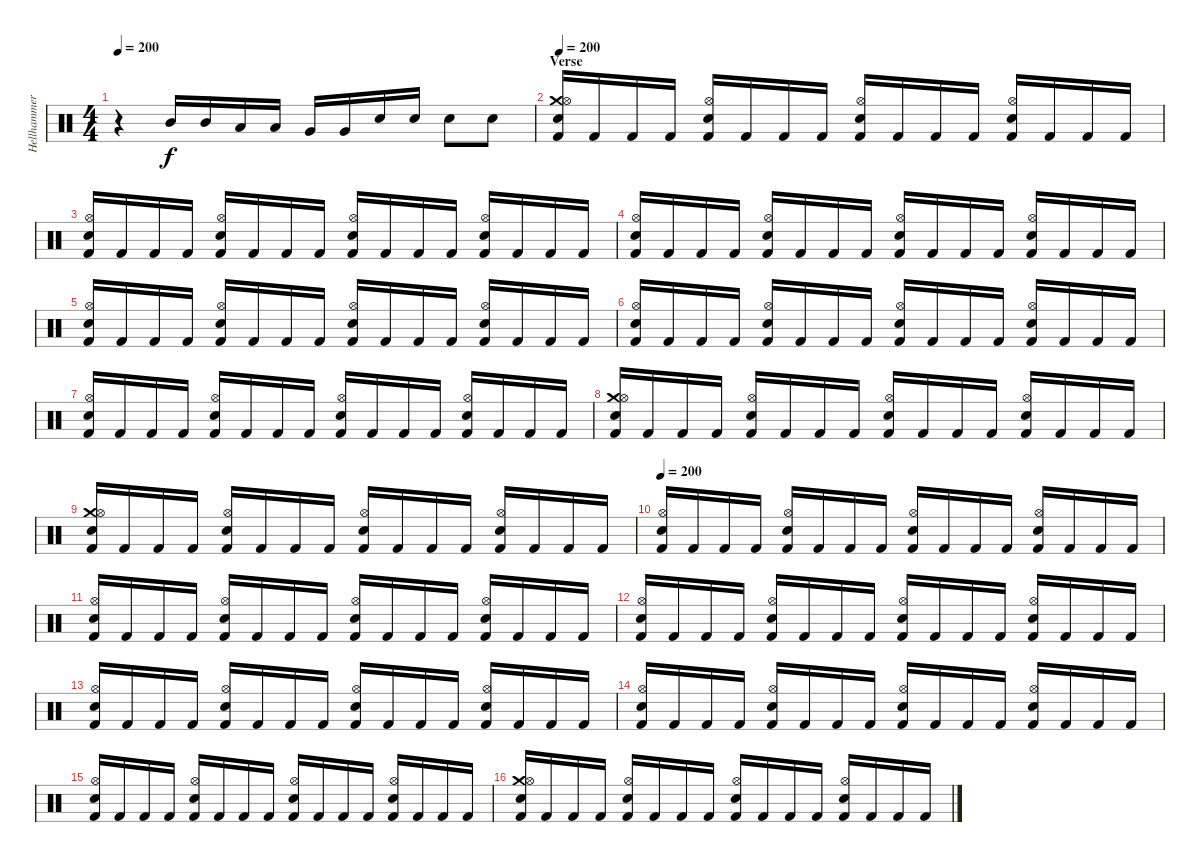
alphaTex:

\track ("Hellhammer" "Hellhammer") {instrument percussion}
\staff {score}
\articulation defaults
\ts (4 4)
\tempo 200
\clef neutral
\ks c
r.4{dy f} "Mid Tom (hit)".16 "Mid Tom (hit)".16 "Low Tom (hit)".16 "Low Tom (hit)".16 "Very Low Tom (hit)".16 "Very Low Tom (hit)".16 "Electric Snare (hit)".16 "Electric Snare (hit)".16 "Electric Snare (hit)".8 "Electric Snare (hit)".8 |
\section ("" "Verse")
\tempo 200
("Crash medium (hit)" "Hi-Hat (open)" "Electric Snare (hit)" "Kick (hit) 2").16 "Kick (hit) 2".16 "Kick (hit) 2".16 "Kick (hit) 2".16 ("Hi-Hat (open)" "Electric Snare (hit)" "Kick (hit) 2").16 "Kick (hit) 2".16 "Kick (hit) 2".16 "Kick (hit) 2".16 ("Hi-Hat (open)" "Electric Snare (hit)" "Kick (hit) 2").16 "Kick (hit) 2".16 "Kick (hit) 2".16 "Kick (hit) 2".16 ("Hi-Hat (open)" "Electric Snare (hit)" "Kick (hit) 2").16 "Kick (hit) 2".16 "Kick (hit) 2".16 "Kick (hit) 2".16 |
("Hi-Hat (open)" "Electric Snare (hit)" "Kick (hit) 2").16 "Kick (hit) 2".16 "Kick (hit) 2".16 "Kick (hit) 2".16 ("Hi-Hat (open)" "Electric Snare (hit)" "Kick (hit) 2").16 "Kick (hit) 2".16 "Kick (hit) 2".16 "Kick (hit) 2".16 ("Hi-Hat (open)" "Electric Snare (hit)" "Kick (hit) 2").16 "Kick (hit) 2".16 "Kick (hit) 2".16 "Kick (hit) 2".16 ("Hi-Hat (open)" "Electric Snare (hit)" "Kick (hit) 2").16 "Kick (hit) 2".16 "Kick (hit) 2".16 "Kick (hit) 2".16 |
("Hi-Hat (open)" "Electric Snare (hit)" "Kick (hit) 2").16 "Kick (hit) 2".16 "Kick (hit) 2".16 "Kick (hit) 2".16 ("Hi-Hat (open)" "Electric Snare (hit)" "Kick (hit) 2").16 "Kick (hit) 2".16 "Kick (hit) 2".16 "Kick (hit) 2".16 ("Hi-Hat (open)" "Electric Snare (hit)" "Kick (hit) 2").16 "Kick (hit) 2".16 "Kick (hit) 2".16 "Kick (hit) 2".16 ("Hi-Hat (open)" "Electric Snare (hit)" "Kick (hit) 2").16 "Kick (hit) 2".16 "Kick (hit) 2".16 "Kick (hit) 2".16 |
("Hi-Hat (open)" "Electric Snare (hit)" "Kick (hit) 2").16 "Kick (hit) 2".16 "Kick (hit) 2".16 "Kick (hit) 2".16 ("Hi-Hat (open)" "Electric Snare (hit)" "Kick (hit) 2").16 "Kick (hit) 2".16 "Kick (hit) 2".16 "Kick (hit) 2".16 ("Hi-Hat (open)" "Electric Snare (hit)" "Kick (hit) 2").16 "Kick (hit) 2".16 "Kick (hit) 2".16 "Kick (hit) 2".16 ("Hi-Hat (open)" "Electric Snare (hit)" "Kick (hit) 2").16 "Kick (hit) 2".16 "Kick (hit) 2".16 "Kick (hit) 2".16 |
("Hi-Hat (open)" "Electric Snare (hit)" "Kick (hit) 2").16 "Kick (hit) 2".16 "Kick (hit) 2".16 "Kick (hit) 2".16 ("Hi-Hat (open)" "Electric Snare (hit)" "Kick (hit) 2").16 "Kick (hit) 2".16 "Kick (hit) 2".16 "Kick (hit) 2".16 ("Hi-Hat (open)" "Electric Snare (hit)" "Kick (hit) 2").16 "Kick (hit) 2".16 "Kick (hit) 2".16 "Kick (hit) 2".16 ("Hi-Hat (open)" "Electric Snare (hit)" "Kick (hit) 2").16 "Kick (hit) 2".16 "Kick (hit) 2".16 "Kick (hit) 2".16 |
("Hi-Hat (open)" "Electric Snare (hit)" "Kick (hit) 2").16 "Kick (hit) 2".16 "Kick (hit) 2".16 "Kick (hit) 2".16 ("Hi-Hat (open)" "Electric Snare (hit)" "Kick (hit) 2").16 "Kick (hit) 2".16 "Kick (hit) 2".16 "Kick (hit) 2".16 ("Hi-Hat (open)" "Electric Snare (hit)" "Kick (hit) 2").16 "Kick (hit) 2".16 "Kick (hit) 2".16 "Kick (hit) 2".16 ("Hi-Hat (open)" "Electric Snare (hit)" "Kick (hit) 2").16 "Kick (hit) 2".16 "Kick (hit) 2".16 "Kick (hit) 2".16 |
("Crash medium (hit)" "Hi-Hat (open)" "Electric Snare (hit)" "Kick (hit) 2").16 "Kick (hit) 2".16 "Kick (hit) 2".16 "Kick (hit) 2".16 ("Hi-Hat (open)" "Electric Snare (hit)" "Kick (hit) 2").16 "Kick (hit) 2".16 "Kick (hit) 2".16 "Kick (hit) 2".16 ("Hi-Hat (open)" "Electric Snare (hit)" "Kick (hit) 2").16 "Kick (hit) 2".16 "Kick (hit) 2".16 "Kick (hit) 2".16 ("Hi-Hat (open)" "Electric Snare (hit)" "Kick (hit) 2").16 "Kick (hit) 2".16 "Kick (hit) 2".16 "Kick (hit) 2".16 |
("Crash medium (hit)" "Hi-Hat (open)" "Electric Snare (hit)" "Kick (hit) 2").16 "Kick (hit) 2".16 "Kick (hit) 2".16 "Kick (hit) 2".16 ("Hi-Hat (open)" "Electric Snare (hit)" "Kick (hit) 2").16 "Kick (hit) 2".16 "Kick (hit) 2".16 "Kick (hit) 2".16 ("Hi-Hat (open)" "Electric Snare (hit)" "Kick (hit) 2").16 "Kick (hit) 2".16 "Kick (hit) 2".16 "Kick (hit) 2".16 ("Hi-Hat (open)" "Electric Snare (hit)" "Kick (hit) 2").16 "Kick (hit) 2".16 "Kick (hit) 2".16 "Kick (hit) 2".16 |
\tempo 200
("Hi-Hat (open)" "Electric Snare (hit)" "Kick (hit) 2").16 "Kick (hit) 2".16 "Kick (hit) 2".16 "Kick (hit) 2".16 ("Hi-Hat (open)" "Electric Snare (hit)" "Kick (hit) 2").16 "Kick (hit) 2".16 "Kick (hit) 2".16 "Kick (hit) 2".16 ("Hi-Hat (open)" "Electric Snare (hit)" "Kick (hit) 2").16 "Kick (hit) 2".16 "Kick (hit) 2".16 "Kick (hit) 2".16 ("Hi-Hat (open)" "Electric Snare (hit)" "Kick (hit) 2").16 "Kick (hit) 2".16 "Kick (hit) 2".16 "Kick (hit) 2".16 |
("Hi-Hat (open)" "Electric Snare (hit)" "Kick (hit) 2").16 "Kick (hit) 2".16 "Kick (hit) 2".16 "Kick (hit) 2".16 ("Hi-Hat (open)" "Electric Snare (hit)" "Kick (hit) 2").16 "Kick (hit) 2".16 "Kick (hit) 2".16 "Kick (hit) 2".16 ("Hi-Hat (open)" "Electric Snare (hit)" "Kick (hit) 2").16 "Kick (hit) 2".16 "Kick (hit) 2".16 "Kick (hit) 2".16 ("Hi-Hat (open)" "Electric Snare (hit)" "Kick (hit) 2").16 "Kick (hit) 2".16 "Kick (hit) 2".16 "Kick (hit) 2".16 |
("Hi-Hat (open)" "Electric Snare (hit)" "Kick (hit) 2").16 "Kick (hit) 2".16 "Kick (hit) 2".16 "Kick (hit) 2".16 ("Hi-Hat (open)" "Electric Snare (hit)" "Kick (hit) 2").16 "Kick (hit) 2".16 "Kick (hit) 2".16 "Kick (hit) 2".16 ("Hi-Hat (open)" "Electric Snare (hit)" "Kick (hit) 2").16 "Kick (hit) 2".16 "Kick (hit) 2".16 "Kick (hit) 2".16 ("Hi-Hat (open)" "Electric Snare (hit)" "Kick (hit) 2").16 "Kick (hit) 2".16 "Kick (hit) 2".16 "Kick (hit) 2".16 |
("Hi-Hat (open)" "Electric Snare (hit)" "Kick (hit) 2").16 "Kick (hit) 2".16 "Kick (hit) 2".16 "Kick (hit) 2".16 ("Hi-Hat (open)" "Electric Snare (hit)" "Kick (hit) 2").16 "Kick (hit) 2".16 "Kick (hit) 2".16 "Kick (hit) 2".16 ("Hi-Hat (open)" "Electric Snare (hit)" "Kick (hit) 2").16 "Kick (hit) 2".16 "Kick (hit) 2".16 "Kick (hit) 2".16 ("Hi-Hat (open)" "Electric Snare (hit)" "Kick (hit) 2").16 "Kick (hit) 2".16 "Kick (hit) 2".16 "Kick (hit) 2".16 |
("Hi-Hat (open)" "Electric Snare (hit)" "Kick (hit) 2").16 "Kick (hit) 2".16 "Kick (hit) 2".16 "Kick (hit) 2".16 ("Hi-Hat (open)" "Electric Snare (hit)" "Kick (hit) 2").16 "Kick (hit) 2".16 "Kick (hit) 2".16 "Kick (hit) 2".16 ("Hi-Hat (open)" "Electric Snare (hit)" "Kick (hit) 2").16 "Kick (hit) 2".16 "Kick (hit) 2".16 "Kick (hit) 2".16 ("Hi-Hat (open)" "Electric Snare (hit)" "Kick (hit) 2").16 "Kick (hit) 2".16 "Kick (hit) 2".16 "Kick (hit) 2".16 |
("Hi-Hat (open)" "Electric Snare (hit)" "Kick (hit) 2").16 "Kick (hit) 2".16 "Kick (hit) 2".16 "Kick (hit) 2".16 ("Hi-Hat (open)" "Electric Snare (hit)" "Kick (hit) 2").16 "Kick (hit) 2".16 "Kick (hit) 2".16 "Kick (hit) 2".16 ("Hi-Hat (open)" "Electric Snare (hit)" "Kick (hit) 2").16 "Kick (hit) 2".16 "Kick (hit) 2".16 "Kick (hit) 2".16 ("Hi-Hat (open)" "Electric Snare (hit)" "Kick (hit) 2").16 "Kick (hit) 2".16 "Kick (hit) 2".16 "Kick (hit) 2".16 |
("Crash medium (hit)" "Hi-Hat (open)" "Electric Snare (hit)" "Kick (hit) 2").16 "Kick (hit) 2".16 "Kick (hit) 2".16 "Kick (hit) 2".16 ("Hi-Hat (open)" "Electric Snare (hit)" "Kick (hit) 2").16 "Kick (hit) 2".16 "Kick (hit) 2".16 "Kick (hit) 2".16 ("Hi-Hat (open)" "Electric Snare (hit)" "Kick (hit) 2").16 "Kick (hit) 2".16 "Kick (hit) 2".16 "Kick (hit) 2".16 ("Hi-Hat (open)" "Electric Snare (hit)" "Kick (hit) 2").16 "Kick (hit) 2".16 "Kick (hit) 2".16 "Kick (hit) 2".16
